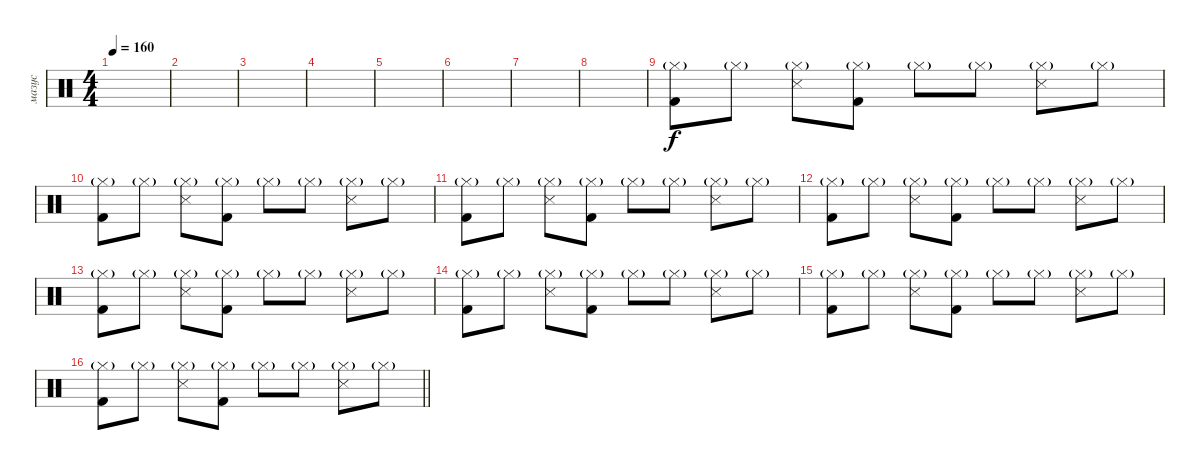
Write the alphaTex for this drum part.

\track ("мазус" "мазус") {instrument percussion}
\staff {score}
\articulation defaults
\ts (4 4)
\tempo 160
\clef neutral
\ks c
|
|
|
|
|
|
|
|
("Kick (hit) 2" "Hi-Hat (closed)"{g}).8 "Hi-Hat (closed)"{g}.8 ("Snare (side stick) 3" "Hi-Hat (closed)"{g}).8 ("Kick (hit) 2" "Hi-Hat (closed)"{g}).8 "Hi-Hat (closed)"{g}.8 "Hi-Hat (closed)"{g}.8 ("Snare (side stick) 3" "Hi-Hat (closed)"{g}).8 "Hi-Hat (closed)"{g}.8 |
("Kick (hit) 2" "Hi-Hat (closed)"{g}).8 "Hi-Hat (closed)"{g}.8 ("Snare (side stick) 3" "Hi-Hat (closed)"{g}).8 ("Kick (hit) 2" "Hi-Hat (closed)"{g}).8 "Hi-Hat (closed)"{g}.8 "Hi-Hat (closed)"{g}.8 ("Snare (side stick) 3" "Hi-Hat (closed)"{g}).8 "Hi-Hat (closed)"{g}.8 |
("Kick (hit) 2" "Hi-Hat (closed)"{g}).8 "Hi-Hat (closed)"{g}.8 ("Snare (side stick) 3" "Hi-Hat (closed)"{g}).8 ("Kick (hit) 2" "Hi-Hat (closed)"{g}).8 "Hi-Hat (closed)"{g}.8 "Hi-Hat (closed)"{g}.8 ("Snare (side stick) 3" "Hi-Hat (closed)"{g}).8 "Hi-Hat (closed)"{g}.8 |
("Kick (hit) 2" "Hi-Hat (closed)"{g}).8 "Hi-Hat (closed)"{g}.8 ("Snare (side stick) 3" "Hi-Hat (closed)"{g}).8 ("Kick (hit) 2" "Hi-Hat (closed)"{g}).8 "Hi-Hat (closed)"{g}.8 "Hi-Hat (closed)"{g}.8 ("Snare (side stick) 3" "Hi-Hat (closed)"{g}).8 "Hi-Hat (closed)"{g}.8 |
("Kick (hit) 2" "Hi-Hat (closed)"{g}).8 "Hi-Hat (closed)"{g}.8 ("Snare (side stick) 3" "Hi-Hat (closed)"{g}).8 ("Kick (hit) 2" "Hi-Hat (closed)"{g}).8 "Hi-Hat (closed)"{g}.8 "Hi-Hat (closed)"{g}.8 ("Snare (side stick) 3" "Hi-Hat (closed)"{g}).8 "Hi-Hat (closed)"{g}.8 |
("Kick (hit) 2" "Hi-Hat (closed)"{g}).8 "Hi-Hat (closed)"{g}.8 ("Snare (side stick) 3" "Hi-Hat (closed)"{g}).8 ("Kick (hit) 2" "Hi-Hat (closed)"{g}).8 "Hi-Hat (closed)"{g}.8 "Hi-Hat (closed)"{g}.8 ("Snare (side stick) 3" "Hi-Hat (closed)"{g}).8 "Hi-Hat (closed)"{g}.8 |
("Kick (hit) 2" "Hi-Hat (closed)"{g}).8 "Hi-Hat (closed)"{g}.8 ("Snare (side stick) 3" "Hi-Hat (closed)"{g}).8 ("Kick (hit) 2" "Hi-Hat (closed)"{g}).8 "Hi-Hat (closed)"{g}.8 "Hi-Hat (closed)"{g}.8 ("Snare (side stick) 3" "Hi-Hat (closed)"{g}).8 "Hi-Hat (closed)"{g}.8 |
\barLineRight lightlight
("Kick (hit) 2" "Hi-Hat (closed)"{g}).8 "Hi-Hat (closed)"{g}.8 ("Snare (side stick) 3" "Hi-Hat (closed)"{g}).8 ("Kick (hit) 2" "Hi-Hat (closed)"{g}).8 "Hi-Hat (closed)"{g}.8 "Hi-Hat (closed)"{g}.8 ("Snare (side stick) 3" "Hi-Hat (closed)"{g}).8 "Hi-Hat (closed)"{g}.8
